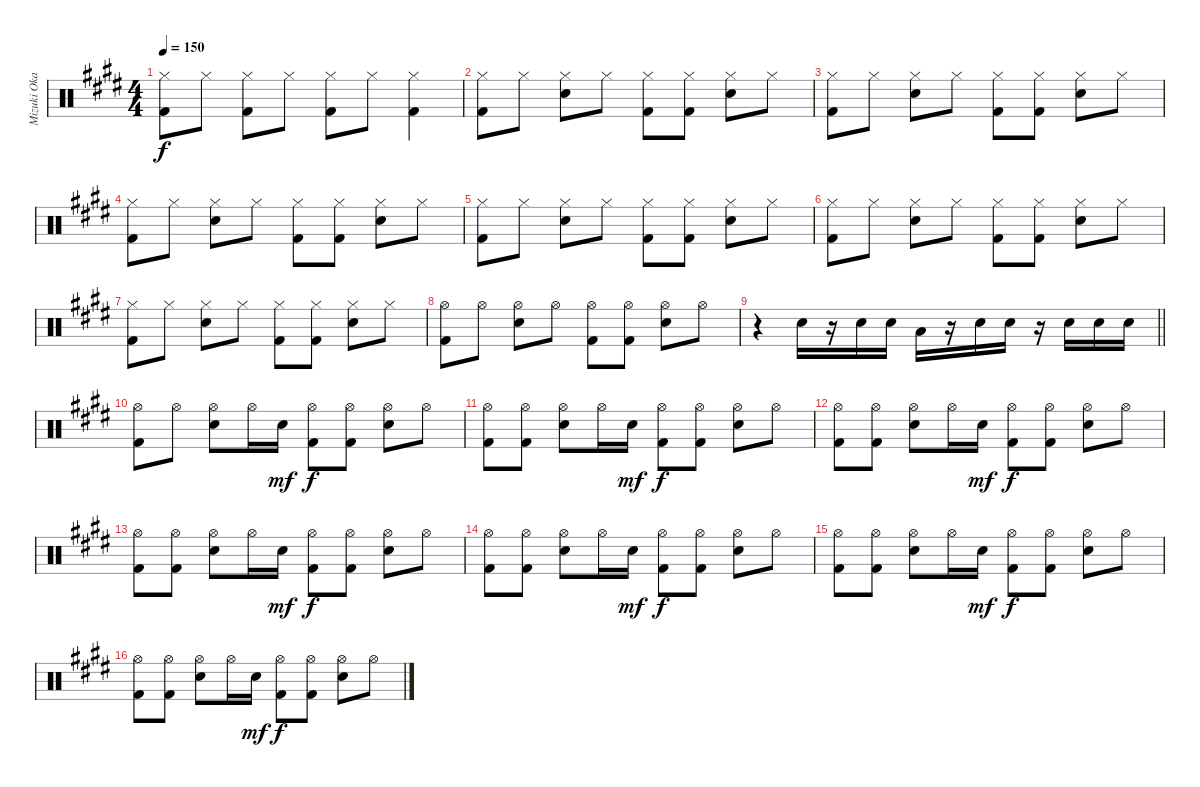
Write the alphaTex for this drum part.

\track ("Mizuki Okajima (Drums)" "Mizuki Oka") {instrument percussion}
\staff {score}
\articulation defaults
\ts (4 4)
\tempo 150
\clef neutral
\ks c#minor
("Hi-Hat (closed)" "Kick (hit) 2").8{dy f} "Hi-Hat (closed)".8 ("Hi-Hat (closed)" "Kick (hit) 2").8 "Hi-Hat (closed)".8 ("Hi-Hat (closed)" "Kick (hit) 2").8 "Hi-Hat (closed)".8 ("Hi-Hat (closed)" "Kick (hit) 2").4 |
("Hi-Hat (closed)" "Kick (hit) 2").8 "Hi-Hat (closed)".8 ("Hi-Hat (closed)" "Snare (hit) 2").8 "Hi-Hat (closed)".8 ("Hi-Hat (closed)" "Kick (hit) 2").8 ("Hi-Hat (closed)" "Kick (hit) 2").8 ("Hi-Hat (closed)" "Snare (hit) 2").8 "Hi-Hat (closed)".8 |
("Hi-Hat (closed)" "Kick (hit) 2").8 "Hi-Hat (closed)".8 ("Hi-Hat (closed)" "Snare (hit) 2").8 "Hi-Hat (closed)".8 ("Hi-Hat (closed)" "Kick (hit) 2").8 ("Hi-Hat (closed)" "Kick (hit) 2").8 ("Hi-Hat (closed)" "Snare (hit) 2").8 "Hi-Hat (closed)".8 |
("Hi-Hat (closed)" "Kick (hit) 2").8 "Hi-Hat (closed)".8 ("Hi-Hat (closed)" "Snare (hit) 2").8 "Hi-Hat (closed)".8 ("Hi-Hat (closed)" "Kick (hit) 2").8 ("Hi-Hat (closed)" "Kick (hit) 2").8 ("Hi-Hat (closed)" "Snare (hit) 2").8 "Hi-Hat (closed)".8 |
("Hi-Hat (closed)" "Kick (hit) 2").8 "Hi-Hat (closed)".8 ("Hi-Hat (closed)" "Snare (hit) 2").8 "Hi-Hat (closed)".8 ("Hi-Hat (closed)" "Kick (hit) 2").8 ("Hi-Hat (closed)" "Kick (hit) 2").8 ("Hi-Hat (closed)" "Snare (hit) 2").8 "Hi-Hat (closed)".8 |
("Hi-Hat (closed)" "Kick (hit) 2").8 "Hi-Hat (closed)".8 ("Hi-Hat (closed)" "Snare (hit) 2").8 "Hi-Hat (closed)".8 ("Hi-Hat (closed)" "Kick (hit) 2").8 ("Hi-Hat (closed)" "Kick (hit) 2").8 ("Hi-Hat (closed)" "Snare (hit) 2").8 "Hi-Hat (closed)".8 |
("Hi-Hat (closed)" "Kick (hit) 2").8 "Hi-Hat (closed)".8 ("Hi-Hat (closed)" "Snare (hit) 2").8 "Hi-Hat (closed)".8 ("Hi-Hat (closed)" "Kick (hit) 2").8 ("Hi-Hat (closed)" "Kick (hit) 2").8 ("Hi-Hat (closed)" "Snare (hit) 2").8 "Hi-Hat (closed)".8 |
("Hi-Hat (open)" "Kick (hit) 2").8 "Hi-Hat (open)".8 ("Hi-Hat (open)" "Snare (hit) 2").8 "Hi-Hat (open)".8 ("Hi-Hat (open)" "Kick (hit) 2").8 ("Hi-Hat (open)" "Kick (hit) 2").8 ("Hi-Hat (open)" "Snare (hit) 2").8 "Hi-Hat (open)".8 |
\barLineRight lightlight
r.4 "Snare (hit) 2".16 r.16 "Snare (hit) 2".16 "Snare (hit) 2".16 "Low Tom (hit)".16 r.16 "Snare (hit) 2".16 "Snare (hit) 2".16 r.16 "Snare (hit) 2".16 "Snare (hit) 2".16 "Snare (hit) 2".16 |
("Hi-Hat (open)" "Kick (hit) 2").8 "Hi-Hat (open)".8 ("Hi-Hat (open)" "Snare (hit) 2").8 "Hi-Hat (open)".16 "Snare (hit) 2".16{dy mf} ("Hi-Hat (open)" "Kick (hit) 2").8{dy f} ("Hi-Hat (open)" "Kick (hit) 2").8 ("Hi-Hat (open)" "Snare (hit) 2").8 "Hi-Hat (open)".8 |
("Hi-Hat (open)" "Kick (hit) 2").8 ("Hi-Hat (open)" "Kick (hit) 2").8 ("Hi-Hat (open)" "Snare (hit) 2").8 "Hi-Hat (open)".16 "Snare (hit) 2".16{dy mf} ("Hi-Hat (open)" "Kick (hit) 2").8{dy f} ("Hi-Hat (open)" "Kick (hit) 2").8 ("Hi-Hat (open)" "Snare (hit) 2").8 "Hi-Hat (open)".8 |
("Hi-Hat (open)" "Kick (hit) 2").8 ("Hi-Hat (open)" "Kick (hit) 2").8 ("Hi-Hat (open)" "Snare (hit) 2").8 "Hi-Hat (open)".16 "Snare (hit) 2".16{dy mf} ("Hi-Hat (open)" "Kick (hit) 2").8{dy f} ("Hi-Hat (open)" "Kick (hit) 2").8 ("Hi-Hat (open)" "Snare (hit) 2").8 "Hi-Hat (open)".8 |
("Hi-Hat (open)" "Kick (hit) 2").8 ("Hi-Hat (open)" "Kick (hit) 2").8 ("Hi-Hat (open)" "Snare (hit) 2").8 "Hi-Hat (open)".16 "Snare (hit) 2".16{dy mf} ("Hi-Hat (open)" "Kick (hit) 2").8{dy f} ("Hi-Hat (open)" "Kick (hit) 2").8 ("Hi-Hat (open)" "Snare (hit) 2").8 "Hi-Hat (open)".8 |
("Hi-Hat (open)" "Kick (hit) 2").8 ("Hi-Hat (open)" "Kick (hit) 2").8 ("Hi-Hat (open)" "Snare (hit) 2").8 "Hi-Hat (open)".16 "Snare (hit) 2".16{dy mf} ("Hi-Hat (open)" "Kick (hit) 2").8{dy f} ("Hi-Hat (open)" "Kick (hit) 2").8 ("Hi-Hat (open)" "Snare (hit) 2").8 "Hi-Hat (open)".8 |
("Hi-Hat (open)" "Kick (hit) 2").8 ("Hi-Hat (open)" "Kick (hit) 2").8 ("Hi-Hat (open)" "Snare (hit) 2").8 "Hi-Hat (open)".16 "Snare (hit) 2".16{dy mf} ("Hi-Hat (open)" "Kick (hit) 2").8{dy f} ("Hi-Hat (open)" "Kick (hit) 2").8 ("Hi-Hat (open)" "Snare (hit) 2").8 "Hi-Hat (open)".8 |
("Hi-Hat (open)" "Kick (hit) 2").8 ("Hi-Hat (open)" "Kick (hit) 2").8 ("Hi-Hat (open)" "Snare (hit) 2").8 "Hi-Hat (open)".16 "Snare (hit) 2".16{dy mf} ("Hi-Hat (open)" "Kick (hit) 2").8{dy f} ("Hi-Hat (open)" "Kick (hit) 2").8 ("Hi-Hat (open)" "Snare (hit) 2").8 "Hi-Hat (open)".8
